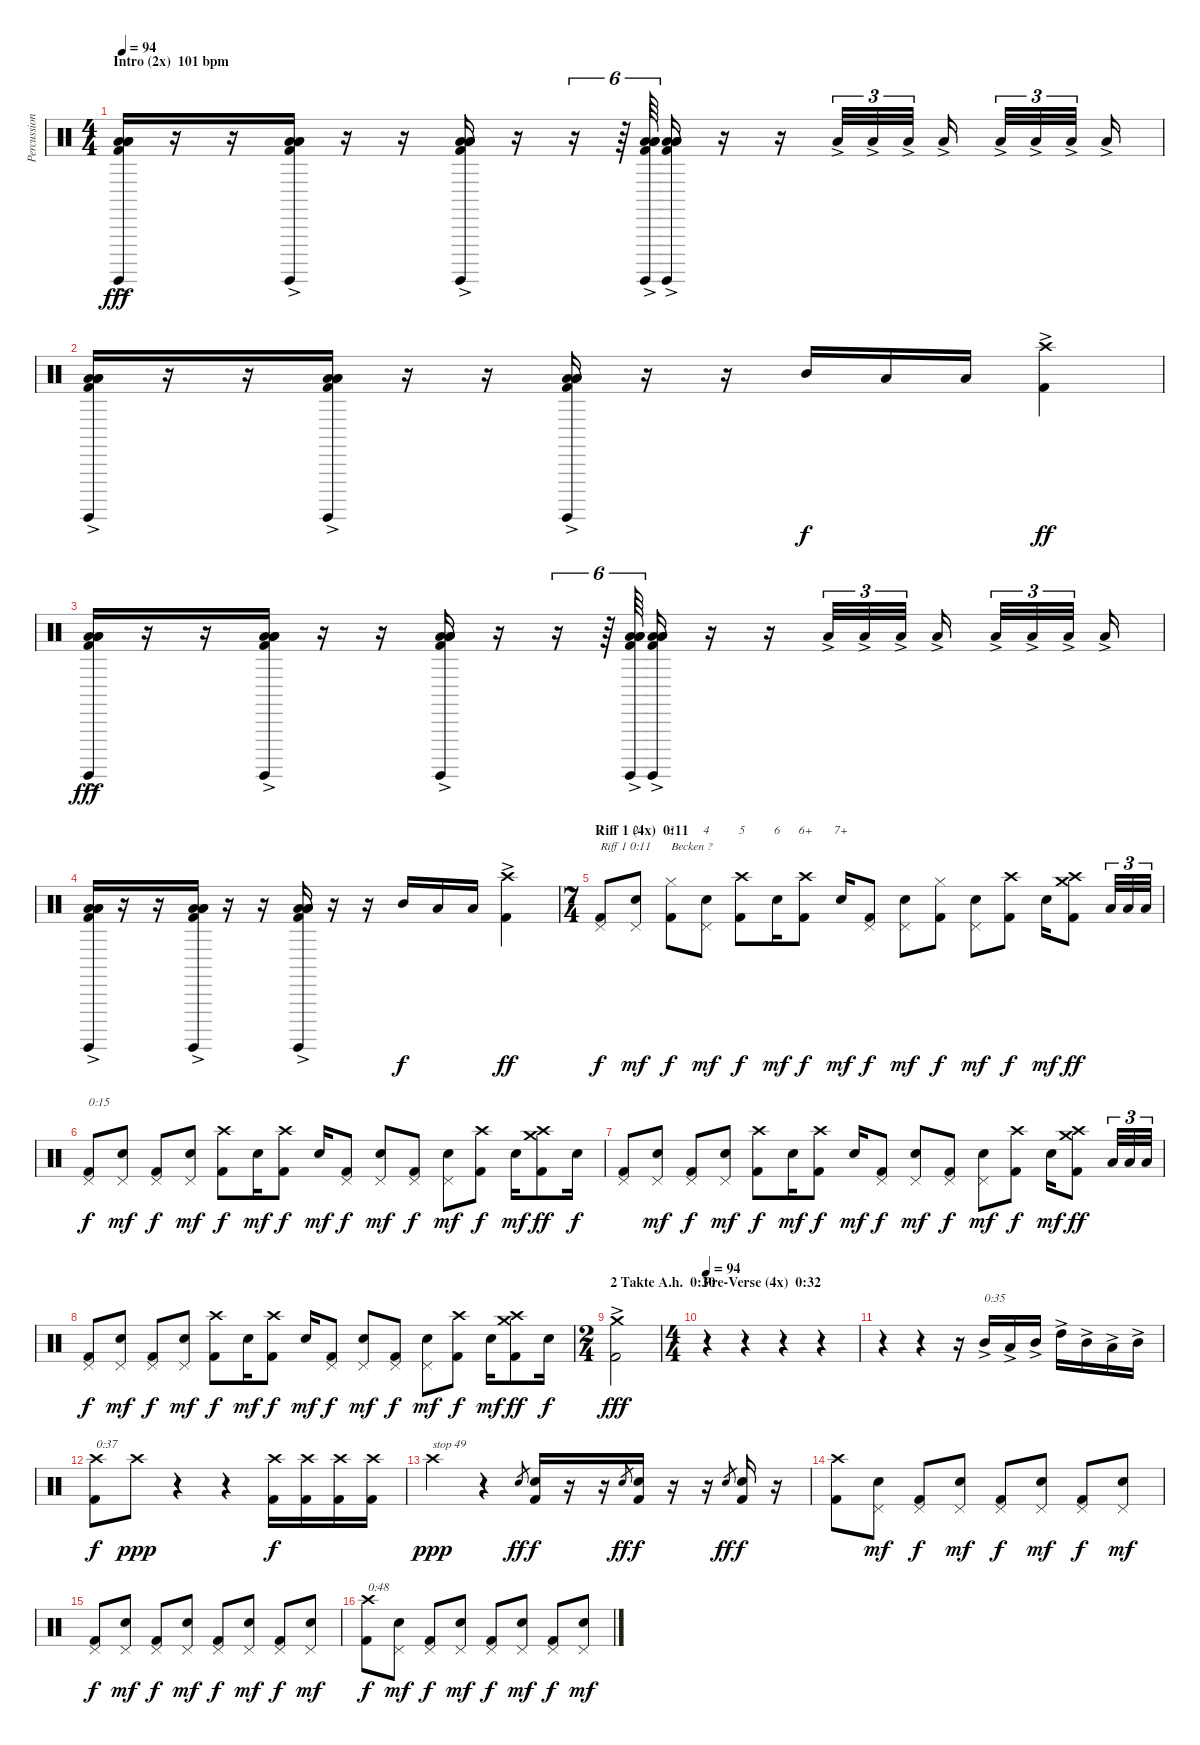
\track ("Percussion" "Percussion") {instrument percussion}
\staff {score}
\articulation defaults
\chord ("1")
\chord ("2")
\chord ("3")
\chord ("4")
\chord ("5")
\chord ("6")
\chord ("6+")
\chord ("7+")
\ts (4 4)
\section ("" "Intro (2x)  101 bpm")
\tempo 94
\clef neutral
\ks c
("Kick (hit) 2" "Surdo (hit)" "Low Tom (hit)"{ac} "Low Tom (hit)"{ac} "Low Tom (hit)"{ac}).16{dy fff} r.16 r.16 ("Kick (hit) 2" "Surdo (hit)" "Low Tom (hit)"{ac} "Low Tom (hit)"{ac} "Low Tom (hit)"{ac}).16 r.16 r.16 ("Kick (hit) 2" "Surdo (hit)" "Low Tom (hit)"{ac} "Low Tom (hit)"{ac} "Low Tom (hit)"{ac}).16 r.16 r.16{tu (6 4)} r.64{tu (6 4)} ("Kick (hit) 2" "Surdo (hit)" "Low Tom (hit)"{ac} "Low Tom (hit)"{ac} "Low Tom (hit)"{ac}).64{tu (6 4)} ("Kick (hit) 2" "Surdo (hit)" "Low Tom (hit)"{ac} "Low Tom (hit)"{ac} "Low Tom (hit)"{ac}).16 r.16 r.16 "Low Tom (hit)"{ac}.32{tu (3 2)} "Low Tom (hit)"{ac}.32{tu (3 2)} "Low Tom (hit)"{ac}.32{tu (3 2)} "Low Tom (hit)"{ac}.16 "Low Tom (hit)"{ac}.32{tu (3 2)} "Low Tom (hit)"{ac}.32{tu (3 2)} "Low Tom (hit)"{ac}.32{tu (3 2)} "Low Tom (hit)"{ac}.16 |
("Kick (hit) 2" "Surdo (hit)" "Low Tom (hit)"{ac} "Low Tom (hit)"{ac} "Low Tom (hit)"{ac}).16 r.16 r.16 ("Kick (hit) 2" "Surdo (hit)" "Low Tom (hit)"{ac} "Low Tom (hit)"{ac} "Low Tom (hit)"{ac}).16 r.16 r.16 ("Kick (hit) 2" "Surdo (hit)" "Low Tom (hit)"{ac} "Low Tom (hit)"{ac} "Low Tom (hit)"{ac}).16 r.16 r.16 "Mid Tom (hit)".16{dy f} "Low Tom (hit)".16 "Low Tom (hit)".16 ("Kick (hit) 2"{ac} "Crash high (hit)").4{dy ff} |
("Kick (hit) 2" "Surdo (hit)" "Low Tom (hit)"{ac} "Low Tom (hit)"{ac} "Low Tom (hit)"{ac}).16{dy fff} r.16 r.16 ("Kick (hit) 2" "Surdo (hit)" "Low Tom (hit)"{ac} "Low Tom (hit)"{ac} "Low Tom (hit)"{ac}).16 r.16 r.16 ("Kick (hit) 2" "Surdo (hit)" "Low Tom (hit)"{ac} "Low Tom (hit)"{ac} "Low Tom (hit)"{ac}).16 r.16 r.16{tu (6 4)} r.64{tu (6 4)} ("Kick (hit) 2" "Surdo (hit)" "Low Tom (hit)"{ac} "Low Tom (hit)"{ac} "Low Tom (hit)"{ac}).64{tu (6 4)} ("Kick (hit) 2" "Surdo (hit)" "Low Tom (hit)"{ac} "Low Tom (hit)"{ac} "Low Tom (hit)"{ac}).16 r.16 r.16 "Low Tom (hit)"{ac}.32{tu (3 2)} "Low Tom (hit)"{ac}.32{tu (3 2)} "Low Tom (hit)"{ac}.32{tu (3 2)} "Low Tom (hit)"{ac}.16 "Low Tom (hit)"{ac}.32{tu (3 2)} "Low Tom (hit)"{ac}.32{tu (3 2)} "Low Tom (hit)"{ac}.32{tu (3 2)} "Low Tom (hit)"{ac}.16 |
("Kick (hit) 2" "Surdo (hit)" "Low Tom (hit)"{ac} "Low Tom (hit)"{ac} "Low Tom (hit)"{ac}).16 r.16 r.16 ("Kick (hit) 2" "Surdo (hit)" "Low Tom (hit)"{ac} "Low Tom (hit)"{ac} "Low Tom (hit)"{ac}).16 r.16 r.16 ("Kick (hit) 2" "Surdo (hit)" "Low Tom (hit)"{ac} "Low Tom (hit)"{ac} "Low Tom (hit)"{ac}).16 r.16 r.16 "Mid Tom (hit)".16{dy f} "Low Tom (hit)".16 "Low Tom (hit)".16 ("Kick (hit) 2"{ac} "Crash high (hit)").4{dy ff} |
\ts (7 4)
\section ("" "Riff 1 (4x)  0:11")
("Kick (hit) 2" "Pedal Hi-Hat (hit)").8{ch "1" txt "Riff 1 0:11" dy f} ("Snare (hit) 2" "Pedal Hi-Hat (hit)").8{ch "2" dy mf} ("Kick (hit) 2" "Hi-Hat (closed)").8{ch "3" txt "Becken ?" dy f} ("Snare (hit) 2" "Pedal Hi-Hat (hit)").8{ch "4" dy mf} ("Kick (hit) 2" "Crash high (hit)").8{ch "5" dy f} "Snare (hit) 2".16{ch "6" dy mf} ("Kick (hit) 2" "Crash high (hit)").8{ch "6+" dy f} "Snare (hit) 2".16{ch "7+" dy mf} ("Kick (hit) 2" "Pedal Hi-Hat (hit)").8{dy f} ("Snare (hit) 2" "Pedal Hi-Hat (hit)").8{dy mf} ("Kick (hit) 2" "Hi-Hat (closed)").8{dy f} ("Snare (hit) 2" "Pedal Hi-Hat (hit)").8{dy mf} ("Kick (hit) 2" "Crash high (hit)").8{dy f} "Snare (hit) 2".16{dy mf} ("Kick (hit) 2" "Crash high (hit)" "Crash medium (hit)").8{dy ff} "Low Tom (hit)".32{tu (3 2)} "Low Tom (hit)".32{tu (3 2)} "Low Tom (hit)".32{tu (3 2)} |
("Kick (hit) 2" "Pedal Hi-Hat (hit)").8{txt "0:15" dy f} ("Snare (hit) 2" "Pedal Hi-Hat (hit)").8{dy mf} ("Kick (hit) 2" "Pedal Hi-Hat (hit)").8{dy f} ("Snare (hit) 2" "Pedal Hi-Hat (hit)").8{dy mf} ("Kick (hit) 2" "Crash high (hit)").8{dy f} "Snare (hit) 2".16{dy mf} ("Kick (hit) 2" "Crash high (hit)").8{dy f} "Snare (hit) 2".16{dy mf} ("Kick (hit) 2" "Pedal Hi-Hat (hit)").8{dy f} ("Snare (hit) 2" "Pedal Hi-Hat (hit)").8{dy mf} ("Kick (hit) 2" "Pedal Hi-Hat (hit)").8{dy f} ("Snare (hit) 2" "Pedal Hi-Hat (hit)").8{dy mf} ("Kick (hit) 2" "Crash high (hit)").8{dy f} "Snare (hit) 2".16{dy mf} ("Kick (hit) 2" "Crash high (hit)" "Crash medium (hit)").8{dy ff} "Snare (hit) 2".16{dy f} |
("Kick (hit) 2" "Pedal Hi-Hat (hit)").8 ("Snare (hit) 2" "Pedal Hi-Hat (hit)").8{dy mf} ("Kick (hit) 2" "Pedal Hi-Hat (hit)").8{dy f} ("Snare (hit) 2" "Pedal Hi-Hat (hit)").8{dy mf} ("Kick (hit) 2" "Crash high (hit)").8{dy f} "Snare (hit) 2".16{dy mf} ("Kick (hit) 2" "Crash high (hit)").8{dy f} "Snare (hit) 2".16{dy mf} ("Kick (hit) 2" "Pedal Hi-Hat (hit)").8{dy f} ("Snare (hit) 2" "Pedal Hi-Hat (hit)").8{dy mf} ("Kick (hit) 2" "Pedal Hi-Hat (hit)").8{dy f} ("Snare (hit) 2" "Pedal Hi-Hat (hit)").8{dy mf} ("Kick (hit) 2" "Crash high (hit)").8{dy f} "Snare (hit) 2".16{dy mf} ("Kick (hit) 2" "Crash high (hit)" "Crash medium (hit)").8{dy ff} "Low Tom (hit)".32{tu (3 2)} "Low Tom (hit)".32{tu (3 2)} "Low Tom (hit)".32{tu (3 2)} |
("Kick (hit) 2" "Pedal Hi-Hat (hit)").8{dy f} ("Snare (hit) 2" "Pedal Hi-Hat (hit)").8{dy mf} ("Kick (hit) 2" "Pedal Hi-Hat (hit)").8{dy f} ("Snare (hit) 2" "Pedal Hi-Hat (hit)").8{dy mf} ("Kick (hit) 2" "Crash high (hit)").8{dy f} "Snare (hit) 2".16{dy mf} ("Kick (hit) 2" "Crash high (hit)").8{dy f} "Snare (hit) 2".16{dy mf} ("Kick (hit) 2" "Pedal Hi-Hat (hit)").8{dy f} ("Snare (hit) 2" "Pedal Hi-Hat (hit)").8{dy mf} ("Kick (hit) 2" "Pedal Hi-Hat (hit)").8{dy f} ("Snare (hit) 2" "Pedal Hi-Hat (hit)").8{dy mf} ("Kick (hit) 2" "Crash high (hit)").8{dy f} "Snare (hit) 2".16{dy mf} ("Kick (hit) 2" "Crash high (hit)" "Crash medium (hit)").8{dy ff} "Snare (hit) 2".16{dy f} |
\ts (2 4)
\section ("" "2 Takte A.h.  0:30")
("Kick (hit) 2"{ac} "Crash medium (hit)"{ac}).2{dy fff} |
\ts (4 4)
\section ("" "Pre-Verse (4x)  0:32")
\tempo 94
r.4 r.4 r.4 r.4 |
r.4 r.4 r.16 "Mid Tom (hit)"{ac}.16{txt "0:35"} "Low Tom (hit)"{ac}.16 "Mid Tom (hit)"{ac}.16 "High Tom (hit)"{ac}.16 "Mid Tom (hit)"{ac}.16 "Low Tom (hit)"{ac}.16 "Mid Tom (hit)"{ac}.16 |
("Kick (hit) 2" "Crash high (hit)").8{txt "0:37" dy f} "Crash high (hit)".8{dy ppp} r.4 r.4 ("Kick (hit) 2" "Crash high (hit)").16{dy f} ("Kick (hit) 2" "Crash high (hit)").16 ("Kick (hit) 2" "Crash high (hit)").16 ("Kick (hit) 2" "Crash high (hit)").16 |
"Crash high (hit)".4{txt "stop 49" dy ppp} r.4 "Snare (hit) 2".8{gr dy ff} ("Kick (hit) 2" "Snare (hit) 2").16{dy f} r.16 r.16 "Snare (hit) 2".8{gr dy ff} ("Kick (hit) 2" "Snare (hit) 2").16{dy f} r.16 r.16 "Snare (hit) 2".8{gr dy ff} ("Kick (hit) 2" "Snare (hit) 2").16{dy f} r.16 |
("Kick (hit) 2" "Crash high (hit)").8 ("Snare (hit) 2" "Pedal Hi-Hat (hit)").8{dy mf} ("Kick (hit) 2" "Pedal Hi-Hat (hit)").8{dy f} ("Snare (hit) 2" "Pedal Hi-Hat (hit)").8{dy mf} ("Kick (hit) 2" "Pedal Hi-Hat (hit)").8{dy f} ("Snare (hit) 2" "Pedal Hi-Hat (hit)").8{dy mf} ("Kick (hit) 2" "Pedal Hi-Hat (hit)").8{dy f} ("Snare (hit) 2" "Pedal Hi-Hat (hit)").8{dy mf} |
("Kick (hit) 2" "Pedal Hi-Hat (hit)").8{dy f} ("Snare (hit) 2" "Pedal Hi-Hat (hit)").8{dy mf} ("Kick (hit) 2" "Pedal Hi-Hat (hit)").8{dy f} ("Snare (hit) 2" "Pedal Hi-Hat (hit)").8{dy mf} ("Kick (hit) 2" "Pedal Hi-Hat (hit)").8{dy f} ("Snare (hit) 2" "Pedal Hi-Hat (hit)").8{dy mf} ("Kick (hit) 2" "Pedal Hi-Hat (hit)").8{dy f} ("Snare (hit) 2" "Pedal Hi-Hat (hit)").8{dy mf} |
("Kick (hit) 2" "Crash high (hit)").8{txt "0:48" dy f} ("Snare (hit) 2" "Pedal Hi-Hat (hit)").8{dy mf} ("Kick (hit) 2" "Pedal Hi-Hat (hit)").8{dy f} ("Snare (hit) 2" "Pedal Hi-Hat (hit)").8{dy mf} ("Kick (hit) 2" "Pedal Hi-Hat (hit)").8{dy f} ("Snare (hit) 2" "Pedal Hi-Hat (hit)").8{dy mf} ("Kick (hit) 2" "Pedal Hi-Hat (hit)").8{dy f} ("Snare (hit) 2" "Pedal Hi-Hat (hit)").8{dy mf}
